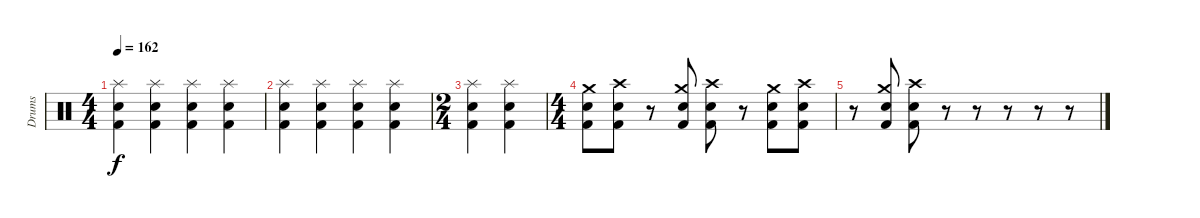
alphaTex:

\track ("Drums" "Drums") {instrument percussion}
\staff {score}
\articulation defaults
\ts (4 4)
\tempo 162
\clef neutral
\ks c
("Splash (hit)" "Electric Snare (hit)" "Kick (hit) 2").4{dy f} ("Splash (hit)" "Electric Snare (hit)" "Kick (hit) 2").4 ("Splash (hit)" "Electric Snare (hit)" "Kick (hit) 2").4 ("Splash (hit)" "Electric Snare (hit)" "Kick (hit) 2").4 |
("Splash (hit)" "Electric Snare (hit)" "Kick (hit) 2").4 ("Splash (hit)" "Electric Snare (hit)" "Kick (hit) 2").4 ("Splash (hit)" "Electric Snare (hit)" "Kick (hit) 2").4 ("Splash (hit)" "Electric Snare (hit)" "Kick (hit) 2").4 |
\ts (2 4)
("Splash (hit)" "Electric Snare (hit)" "Kick (hit) 2").4 ("Splash (hit)" "Electric Snare (hit)" "Kick (hit) 2").4 |
\ts (4 4)
("Crash medium (hit)" "Snare (hit) 2" "Kick (hit) 2").8 ("Crash high (hit)" "Snare (hit) 2" "Kick (hit) 2").8 r.8 ("Crash medium (hit)" "Snare (hit) 2" "Kick (hit) 2").8 ("Crash high (hit)" "Snare (hit) 2" "Kick (hit) 2").8 r.8 ("Crash medium (hit)" "Snare (hit) 2" "Kick (hit) 2").8 ("Crash high (hit)" "Snare (hit) 2" "Kick (hit) 2").8 |
r.8 ("Crash medium (hit)" "Snare (hit) 2" "Kick (hit) 2").8 ("Crash high (hit)" "Snare (hit) 2" "Kick (hit) 2").8 r.8 r.8 r.8 r.8 r.8
